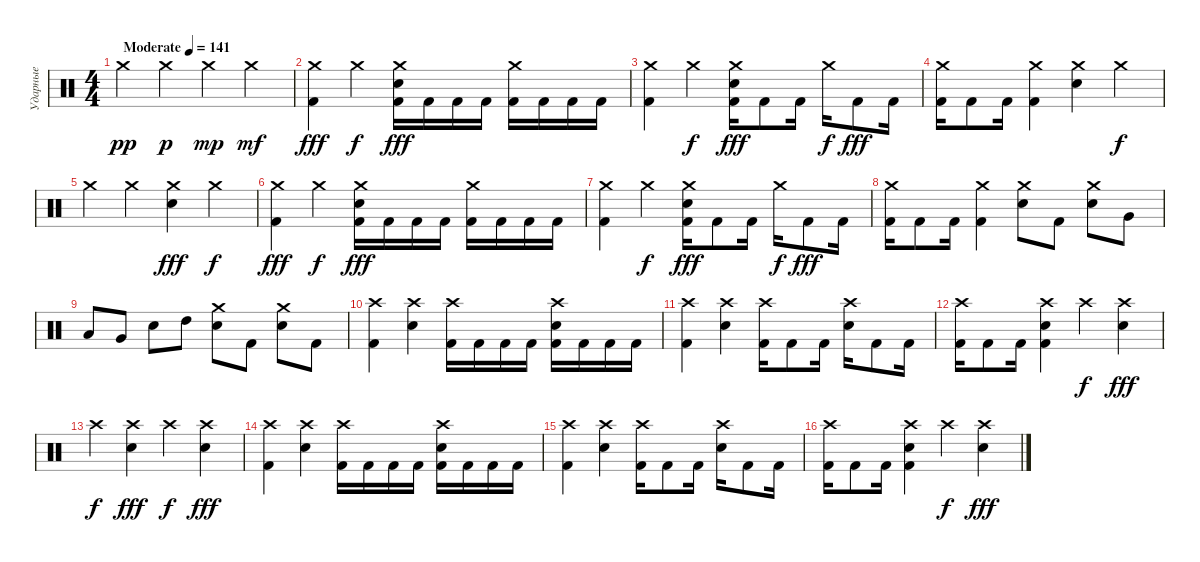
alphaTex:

\track ("Ударные" "Ударные") {instrument percussion}
\staff {score}
\articulation defaults
\ts (4 4)
\tempo (141 "Moderate")
\clef neutral
\ks c "Crash medium (hit)".4{dy pp} "Crash medium (hit)".4{dy p} "Crash medium (hit)".4{dy mp} "Crash medium (hit)".4{dy mf}
|
("Crash medium (hit)" "Kick (hit) 2").4{dy fff} "Crash medium (hit)".4{dy f} ("Crash medium (hit)" "Electric Snare (hit)" "Kick (hit) 2").16{dy fff} "Kick (hit) 2".16 "Kick (hit) 2".16 "Kick (hit) 2".16 ("Crash medium (hit)" "Kick (hit) 2").16 "Kick (hit) 2".16 "Kick (hit) 2".16 "Kick (hit) 2".16 |
("Crash medium (hit)" "Kick (hit) 2").4 "Crash medium (hit)".4{dy f} ("Crash medium (hit)" "Electric Snare (hit)" "Kick (hit) 2").16{dy fff} "Kick (hit) 2".8 "Kick (hit) 2".16 "Crash medium (hit)".16{dy f} "Kick (hit) 2".8{dy fff} "Kick (hit) 2".16 |
("Crash medium (hit)" "Kick (hit) 2").16 "Kick (hit) 2".8 "Kick (hit) 2".16 ("Crash medium (hit)" "Kick (hit) 2").4 ("Crash medium (hit)" "Electric Snare (hit)").4 "Crash medium (hit)".4{dy f} |
"Crash medium (hit)".4 "Crash medium (hit)".4 ("Crash medium (hit)" "Electric Snare (hit)").4{dy fff} "Crash medium (hit)".4{dy f} |
("Crash medium (hit)" "Kick (hit) 2").4{dy fff} "Crash medium (hit)".4{dy f} ("Crash medium (hit)" "Electric Snare (hit)" "Kick (hit) 2").16{dy fff} "Kick (hit) 2".16 "Kick (hit) 2".16 "Kick (hit) 2".16 ("Crash medium (hit)" "Kick (hit) 2").16 "Kick (hit) 2".16 "Kick (hit) 2".16 "Kick (hit) 2".16 |
("Crash medium (hit)" "Kick (hit) 2").4 "Crash medium (hit)".4{dy f} ("Crash medium (hit)" "Electric Snare (hit)" "Kick (hit) 2").16{dy fff} "Kick (hit) 2".8 "Kick (hit) 2".16 "Crash medium (hit)".16{dy f} "Kick (hit) 2".8{dy fff} "Kick (hit) 2".16 |
("Crash medium (hit)" "Kick (hit) 2").16 "Kick (hit) 2".8 "Kick (hit) 2".16 ("Crash medium (hit)" "Kick (hit) 2").4 ("Crash medium (hit)" "Electric Snare (hit)").8 "Kick (hit) 2".8 ("Crash medium (hit)" "Electric Snare (hit)").8 "Very Low Tom (hit)".8 |
"Low Tom (hit)".8 "Very Low Tom (hit)".8 "Electric Snare (hit)".8 "High Tom (hit)".8 ("Crash medium (hit)" "Electric Snare (hit)").8 "Kick (hit) 2".8 ("Crash medium (hit)" "Electric Snare (hit)").8 "Kick (hit) 2".8 |
("Crash high (hit)" "Kick (hit) 2").4 ("Crash high (hit)" "Electric Snare (hit)").4 ("Crash high (hit)" "Kick (hit) 2").16 "Kick (hit) 2".16 "Kick (hit) 2".16 "Kick (hit) 2".16 ("Crash high (hit)" "Electric Snare (hit)" "Kick (hit) 2").16 "Kick (hit) 2".16 "Kick (hit) 2".16 "Kick (hit) 2".16 |
("Crash high (hit)" "Kick (hit) 2").4 ("Crash high (hit)" "Electric Snare (hit)").4 ("Crash high (hit)" "Kick (hit) 2").16 "Kick (hit) 2".8 "Kick (hit) 2".16 ("Crash high (hit)" "Electric Snare (hit)").16 "Kick (hit) 2".8 "Kick (hit) 2".16 |
("Crash high (hit)" "Kick (hit) 2").16 "Kick (hit) 2".8 "Kick (hit) 2".16 ("Crash high (hit)" "Electric Snare (hit)" "Kick (hit) 2").4 "Crash high (hit)".4{dy f} ("Crash high (hit)" "Electric Snare (hit)").4{dy fff} |
"Crash high (hit)".4{dy f} ("Crash high (hit)" "Electric Snare (hit)").4{dy fff} "Crash high (hit)".4{dy f} ("Crash high (hit)" "Electric Snare (hit)").4{dy fff} |
("Crash high (hit)" "Kick (hit) 2").4 ("Crash high (hit)" "Electric Snare (hit)").4 ("Crash high (hit)" "Kick (hit) 2").16 "Kick (hit) 2".16 "Kick (hit) 2".16 "Kick (hit) 2".16 ("Crash high (hit)" "Electric Snare (hit)" "Kick (hit) 2").16 "Kick (hit) 2".16 "Kick (hit) 2".16 "Kick (hit) 2".16 |
("Crash high (hit)" "Kick (hit) 2").4 ("Crash high (hit)" "Electric Snare (hit)").4 ("Crash high (hit)" "Kick (hit) 2").16 "Kick (hit) 2".8 "Kick (hit) 2".16 ("Crash high (hit)" "Electric Snare (hit)").16 "Kick (hit) 2".8 "Kick (hit) 2".16 |
("Crash high (hit)" "Kick (hit) 2").16 "Kick (hit) 2".8 "Kick (hit) 2".16 ("Crash high (hit)" "Electric Snare (hit)" "Kick (hit) 2").4 "Crash high (hit)".4{dy f} ("Crash high (hit)" "Electric Snare (hit)").4{dy fff}
